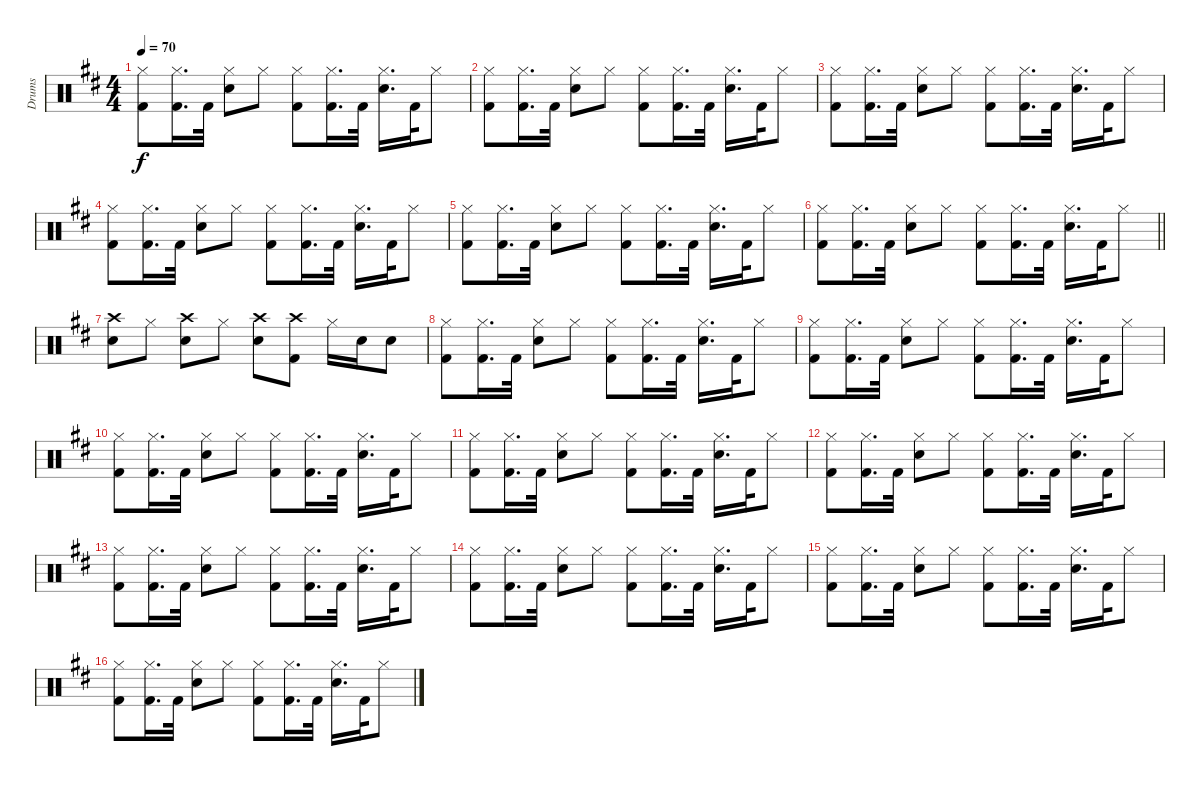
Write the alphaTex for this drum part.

\track ("Drums" "Drums") {instrument percussion}
\staff {score}
\articulation defaults
\ts (4 4)
\tempo 70
\clef neutral
\ks d
("Hi-Hat (closed)" "Kick (hit) 2").8{dy f} ("Hi-Hat (closed)" "Kick (hit) 2").16{d} "Kick (hit) 2".32 ("Hi-Hat (closed)" "Snare (hit) 2").8 "Hi-Hat (closed)".8 ("Hi-Hat (closed)" "Kick (hit) 2").8 ("Hi-Hat (closed)" "Kick (hit) 2").16{d} "Kick (hit) 2".32 ("Hi-Hat (closed)" "Snare (hit) 2").16{d} "Kick (hit) 2".32 "Hi-Hat (closed)".8 |
("Hi-Hat (closed)" "Kick (hit) 2").8 ("Hi-Hat (closed)" "Kick (hit) 2").16{d} "Kick (hit) 2".32 ("Hi-Hat (closed)" "Snare (hit) 2").8 "Hi-Hat (closed)".8 ("Hi-Hat (closed)" "Kick (hit) 2").8 ("Hi-Hat (closed)" "Kick (hit) 2").16{d} "Kick (hit) 2".32 ("Hi-Hat (closed)" "Snare (hit) 2").16{d} "Kick (hit) 2".32 "Hi-Hat (closed)".8 |
("Hi-Hat (closed)" "Kick (hit) 2").8 ("Hi-Hat (closed)" "Kick (hit) 2").16{d} "Kick (hit) 2".32 ("Hi-Hat (closed)" "Snare (hit) 2").8 "Hi-Hat (closed)".8 ("Hi-Hat (closed)" "Kick (hit) 2").8 ("Hi-Hat (closed)" "Kick (hit) 2").16{d} "Kick (hit) 2".32 ("Hi-Hat (closed)" "Snare (hit) 2").16{d} "Kick (hit) 2".32 "Hi-Hat (closed)".8 |
("Hi-Hat (closed)" "Kick (hit) 2").8 ("Hi-Hat (closed)" "Kick (hit) 2").16{d} "Kick (hit) 2".32 ("Hi-Hat (closed)" "Snare (hit) 2").8 "Hi-Hat (closed)".8 ("Hi-Hat (closed)" "Kick (hit) 2").8 ("Hi-Hat (closed)" "Kick (hit) 2").16{d} "Kick (hit) 2".32 ("Hi-Hat (closed)" "Snare (hit) 2").16{d} "Kick (hit) 2".32 "Hi-Hat (closed)".8 |
("Hi-Hat (closed)" "Kick (hit) 2").8 ("Hi-Hat (closed)" "Kick (hit) 2").16{d} "Kick (hit) 2".32 ("Hi-Hat (closed)" "Snare (hit) 2").8 "Hi-Hat (closed)".8 ("Hi-Hat (closed)" "Kick (hit) 2").8 ("Hi-Hat (closed)" "Kick (hit) 2").16{d} "Kick (hit) 2".32 ("Hi-Hat (closed)" "Snare (hit) 2").16{d} "Kick (hit) 2".32 "Hi-Hat (closed)".8 |
\barLineRight lightlight
("Hi-Hat (closed)" "Kick (hit) 2").8 ("Hi-Hat (closed)" "Kick (hit) 2").16{d} "Kick (hit) 2".32 ("Hi-Hat (closed)" "Snare (hit) 2").8 "Hi-Hat (closed)".8 ("Hi-Hat (closed)" "Kick (hit) 2").8 ("Hi-Hat (closed)" "Kick (hit) 2").16{d} "Kick (hit) 2".32 ("Hi-Hat (closed)" "Snare (hit) 2").16{d} "Kick (hit) 2".32 "Hi-Hat (closed)".8 |
("Crash high (hit)" "Snare (hit) 2").8 "Hi-Hat (closed)".8 ("Crash high (hit)" "Snare (hit) 2").8 "Hi-Hat (closed)".8 ("Crash high (hit)" "Snare (hit) 2").8 ("Crash high (hit)" "Kick (hit) 2").8 "Hi-Hat (closed)".16 "Snare (hit) 2".16 "Snare (hit) 2".8 |
("Hi-Hat (closed)" "Kick (hit) 2").8 ("Hi-Hat (closed)" "Kick (hit) 2").16{d} "Kick (hit) 2".32 ("Hi-Hat (closed)" "Snare (hit) 2").8 "Hi-Hat (closed)".8 ("Hi-Hat (closed)" "Kick (hit) 2").8 ("Hi-Hat (closed)" "Kick (hit) 2").16{d} "Kick (hit) 2".32 ("Hi-Hat (closed)" "Snare (hit) 2").16{d} "Kick (hit) 2".32 "Hi-Hat (closed)".8 |
("Hi-Hat (closed)" "Kick (hit) 2").8 ("Hi-Hat (closed)" "Kick (hit) 2").16{d} "Kick (hit) 2".32 ("Hi-Hat (closed)" "Snare (hit) 2").8 "Hi-Hat (closed)".8 ("Hi-Hat (closed)" "Kick (hit) 2").8 ("Hi-Hat (closed)" "Kick (hit) 2").16{d} "Kick (hit) 2".32 ("Hi-Hat (closed)" "Snare (hit) 2").16{d} "Kick (hit) 2".32 "Hi-Hat (closed)".8 |
("Hi-Hat (closed)" "Kick (hit) 2").8 ("Hi-Hat (closed)" "Kick (hit) 2").16{d} "Kick (hit) 2".32 ("Hi-Hat (closed)" "Snare (hit) 2").8 "Hi-Hat (closed)".8 ("Hi-Hat (closed)" "Kick (hit) 2").8 ("Hi-Hat (closed)" "Kick (hit) 2").16{d} "Kick (hit) 2".32 ("Hi-Hat (closed)" "Snare (hit) 2").16{d} "Kick (hit) 2".32 "Hi-Hat (closed)".8 |
("Hi-Hat (closed)" "Kick (hit) 2").8 ("Hi-Hat (closed)" "Kick (hit) 2").16{d} "Kick (hit) 2".32 ("Hi-Hat (closed)" "Snare (hit) 2").8 "Hi-Hat (closed)".8 ("Hi-Hat (closed)" "Kick (hit) 2").8 ("Hi-Hat (closed)" "Kick (hit) 2").16{d} "Kick (hit) 2".32 ("Hi-Hat (closed)" "Snare (hit) 2").16{d} "Kick (hit) 2".32 "Hi-Hat (closed)".8 |
("Hi-Hat (closed)" "Kick (hit) 2").8 ("Hi-Hat (closed)" "Kick (hit) 2").16{d} "Kick (hit) 2".32 ("Hi-Hat (closed)" "Snare (hit) 2").8 "Hi-Hat (closed)".8 ("Hi-Hat (closed)" "Kick (hit) 2").8 ("Hi-Hat (closed)" "Kick (hit) 2").16{d} "Kick (hit) 2".32 ("Hi-Hat (closed)" "Snare (hit) 2").16{d} "Kick (hit) 2".32 "Hi-Hat (closed)".8 |
("Hi-Hat (closed)" "Kick (hit) 2").8 ("Hi-Hat (closed)" "Kick (hit) 2").16{d} "Kick (hit) 2".32 ("Hi-Hat (closed)" "Snare (hit) 2").8 "Hi-Hat (closed)".8 ("Hi-Hat (closed)" "Kick (hit) 2").8 ("Hi-Hat (closed)" "Kick (hit) 2").16{d} "Kick (hit) 2".32 ("Hi-Hat (closed)" "Snare (hit) 2").16{d} "Kick (hit) 2".32 "Hi-Hat (closed)".8 |
("Hi-Hat (closed)" "Kick (hit) 2").8 ("Hi-Hat (closed)" "Kick (hit) 2").16{d} "Kick (hit) 2".32 ("Hi-Hat (closed)" "Snare (hit) 2").8 "Hi-Hat (closed)".8 ("Hi-Hat (closed)" "Kick (hit) 2").8 ("Hi-Hat (closed)" "Kick (hit) 2").16{d} "Kick (hit) 2".32 ("Hi-Hat (closed)" "Snare (hit) 2").16{d} "Kick (hit) 2".32 "Hi-Hat (closed)".8 |
("Hi-Hat (closed)" "Kick (hit) 2").8 ("Hi-Hat (closed)" "Kick (hit) 2").16{d} "Kick (hit) 2".32 ("Hi-Hat (closed)" "Snare (hit) 2").8 "Hi-Hat (closed)".8 ("Hi-Hat (closed)" "Kick (hit) 2").8 ("Hi-Hat (closed)" "Kick (hit) 2").16{d} "Kick (hit) 2".32 ("Hi-Hat (closed)" "Snare (hit) 2").16{d} "Kick (hit) 2".32 "Hi-Hat (closed)".8 |
("Hi-Hat (closed)" "Kick (hit) 2").8 ("Hi-Hat (closed)" "Kick (hit) 2").16{d} "Kick (hit) 2".32 ("Hi-Hat (closed)" "Snare (hit) 2").8 "Hi-Hat (closed)".8 ("Hi-Hat (closed)" "Kick (hit) 2").8 ("Hi-Hat (closed)" "Kick (hit) 2").16{d} "Kick (hit) 2".32 ("Hi-Hat (closed)" "Snare (hit) 2").16{d} "Kick (hit) 2".32 "Hi-Hat (closed)".8
